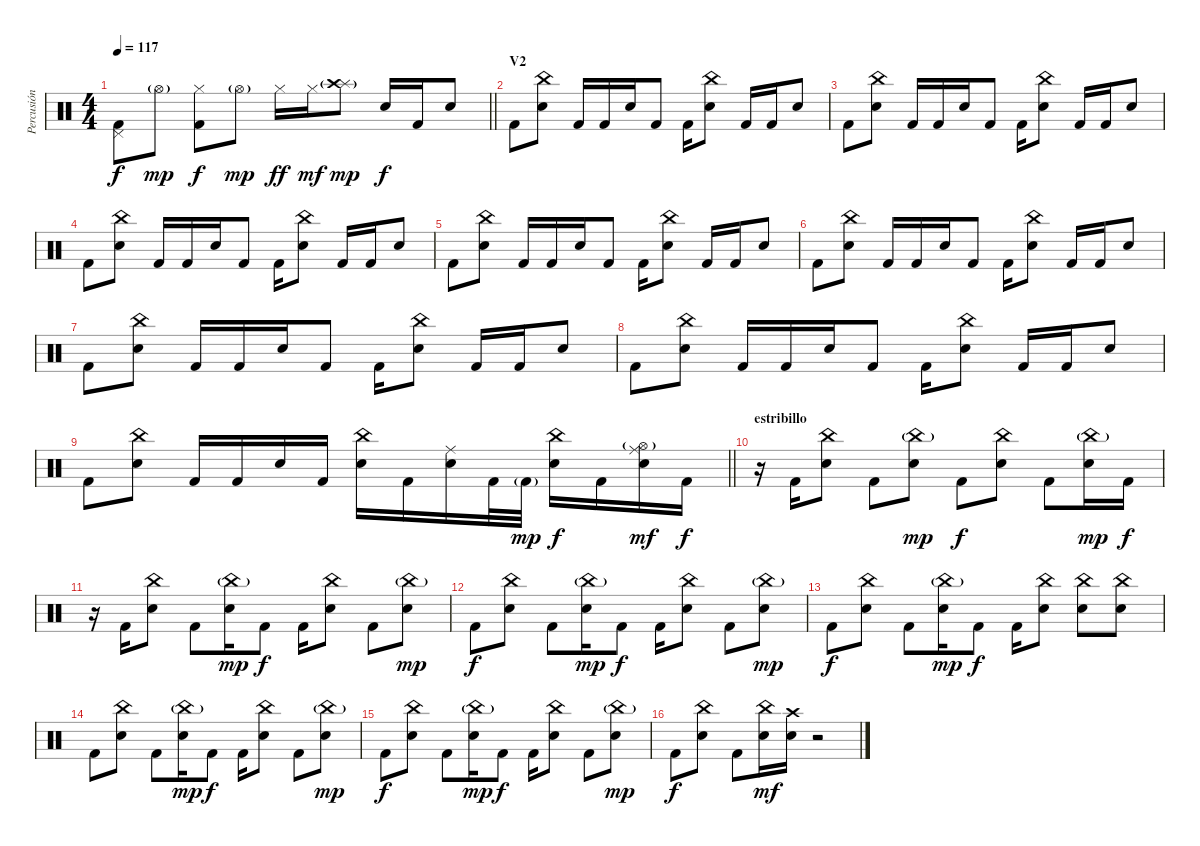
\track ("Percusión" "Percusión") {instrument percussion}
\staff {score}
\articulation defaults
\ts (4 4)
\tempo 117
\clef neutral
\barLineRight lightlight
\ks c
("Pedal Hi-Hat (hit)" "Kick (hit) 2").8{dy f} "Hi-Hat (open)"{g}.8{dy mp} ("Hi-Hat (closed)" "Kick (hit) 2").8{dy f} "Hi-Hat (open)"{g}.8{dy mp} "Hi-Hat (closed)".16{dy ff} "Hi-Hat (closed)".16{dy mf} ("Splash (hit)" "Crash high (hit)"{g}).8{dy mp} "Snare (hit) 2".16{dy f} "Kick (hit) 2".16 "Snare (hit) 2".8 |
\section ("" "V2")
"Kick (hit) 2".8{volume 10} ("Snare (hit) 2" "China (hit)").8 "Kick (hit) 2".16 "Kick (hit) 2".16 "Snare (hit) 2".16 "Kick (hit) 2".8 "Kick (hit) 2".16 ("Snare (hit) 2" "China (hit)").8 "Kick (hit) 2".16 "Kick (hit) 2".16 "Snare (hit) 2".8 |
"Kick (hit) 2".8 ("Snare (hit) 2" "China (hit)").8 "Kick (hit) 2".16 "Kick (hit) 2".16 "Snare (hit) 2".16 "Kick (hit) 2".8 "Kick (hit) 2".16 ("Snare (hit) 2" "China (hit)").8 "Kick (hit) 2".16 "Kick (hit) 2".16 "Snare (hit) 2".8 |
"Kick (hit) 2".8 ("Snare (hit) 2" "China (hit)").8 "Kick (hit) 2".16 "Kick (hit) 2".16 "Snare (hit) 2".16 "Kick (hit) 2".8 "Kick (hit) 2".16 ("Snare (hit) 2" "China (hit)").8 "Kick (hit) 2".16 "Kick (hit) 2".16 "Snare (hit) 2".8 |
"Kick (hit) 2".8 ("Snare (hit) 2" "China (hit)").8 "Kick (hit) 2".16 "Kick (hit) 2".16 "Snare (hit) 2".16 "Kick (hit) 2".8 "Kick (hit) 2".16 ("Snare (hit) 2" "China (hit)").8 "Kick (hit) 2".16 "Kick (hit) 2".16 "Snare (hit) 2".8 |
"Kick (hit) 2".8 ("Snare (hit) 2" "China (hit)").8 "Kick (hit) 2".16 "Kick (hit) 2".16 "Snare (hit) 2".16 "Kick (hit) 2".8 "Kick (hit) 2".16 ("Snare (hit) 2" "China (hit)").8 "Kick (hit) 2".16 "Kick (hit) 2".16 "Snare (hit) 2".8 |
"Kick (hit) 2".8 ("Snare (hit) 2" "China (hit)").8 "Kick (hit) 2".16 "Kick (hit) 2".16 "Snare (hit) 2".16 "Kick (hit) 2".8 "Kick (hit) 2".16 ("Snare (hit) 2" "China (hit)").8 "Kick (hit) 2".16 "Kick (hit) 2".16 "Snare (hit) 2".8 |
"Kick (hit) 2".8 ("Snare (hit) 2" "China (hit)").8 "Kick (hit) 2".16 "Kick (hit) 2".16 "Snare (hit) 2".16 "Kick (hit) 2".8 "Kick (hit) 2".16 ("Snare (hit) 2" "China (hit)").8 "Kick (hit) 2".16 "Kick (hit) 2".16 "Snare (hit) 2".8 |
\barLineRight lightlight "Kick (hit) 2".8
("Snare (hit) 2" "China (hit)").8 "Kick (hit) 2".16 "Kick (hit) 2".16 "Snare (hit) 2".16 "Kick (hit) 2".16 ("Snare (hit) 2" "China (hit)").16 "Kick (hit) 2".16 ("Snare (hit) 2" "Ride (middle)").16 "Kick (hit) 2".32 "Kick (hit) 2"{g}.32{dy mp} ("Snare (hit) 2" "China (hit)").16{dy f} "Kick (hit) 2".16 ("Snare (hit) 2" "Ride (middle)" "Hi-Hat (open)"{g}).16{dy mf} "Kick (hit) 2".16{dy f} |
\section ("" "estribillo")
r.16 "Kick (hit) 2".16 ("Snare (hit) 2" "China (hit)").8 "Kick (hit) 2".8 ("Snare (hit) 2" "China (hit)"{g}).8{dy mp} "Kick (hit) 2".8{dy f} ("Snare (hit) 2" "China (hit)").8 "Kick (hit) 2".8 ("Snare (hit) 2" "China (hit)"{g}).16{dy mp} "Kick (hit) 2".16{dy f} |
r.16 "Kick (hit) 2".16 ("Snare (hit) 2" "China (hit)").8 "Kick (hit) 2".8 ("Snare (hit) 2" "China (hit)"{g}).16{dy mp} "Kick (hit) 2".8{dy f} "Kick (hit) 2".16 ("Snare (hit) 2" "China (hit)").8 "Kick (hit) 2".8 ("Snare (hit) 2" "China (hit)"{g}).8{dy mp} |
"Kick (hit) 2".8{dy f} ("Snare (hit) 2" "China (hit)").8 "Kick (hit) 2".8 ("Snare (hit) 2" "China (hit)"{g}).16{dy mp} "Kick (hit) 2".8{dy f} "Kick (hit) 2".16 ("Snare (hit) 2" "China (hit)").8 "Kick (hit) 2".8 ("Snare (hit) 2" "China (hit)"{g}).8{dy mp} |
"Kick (hit) 2".8{dy f} ("Snare (hit) 2" "China (hit)").8 "Kick (hit) 2".8 ("Snare (hit) 2" "China (hit)"{g}).16{dy mp} "Kick (hit) 2".8{dy f} "Kick (hit) 2".16 ("Snare (hit) 2" "China (hit)").8 ("Snare (hit) 2" "China (hit)").8 ("Snare (hit) 2" "China (hit)").8 |
"Kick (hit) 2".8 ("Snare (hit) 2" "China (hit)").8 "Kick (hit) 2".8 ("Snare (hit) 2" "China (hit)"{g}).16{dy mp} "Kick (hit) 2".8{dy f} "Kick (hit) 2".16 ("Snare (hit) 2" "China (hit)").8 "Kick (hit) 2".8 ("Snare (hit) 2" "China (hit)"{g}).8{dy mp} |
"Kick (hit) 2".8{dy f} ("Snare (hit) 2" "China (hit)").8 "Kick (hit) 2".8 ("Snare (hit) 2" "China (hit)"{g}).16{dy mp} "Kick (hit) 2".8{dy f} "Kick (hit) 2".16 ("Snare (hit) 2" "China (hit)").8 "Kick (hit) 2".8 ("Snare (hit) 2" "China (hit)"{g}).8{dy mp} |
"Kick (hit) 2".8{dy f} ("Snare (hit) 2" "China (hit)").8 "Kick (hit) 2".8 ("Snare (hit) 2" "China (hit)").16{dy mf} ("Snare (hit) 2" "Crash high (hit)").16 r.2
